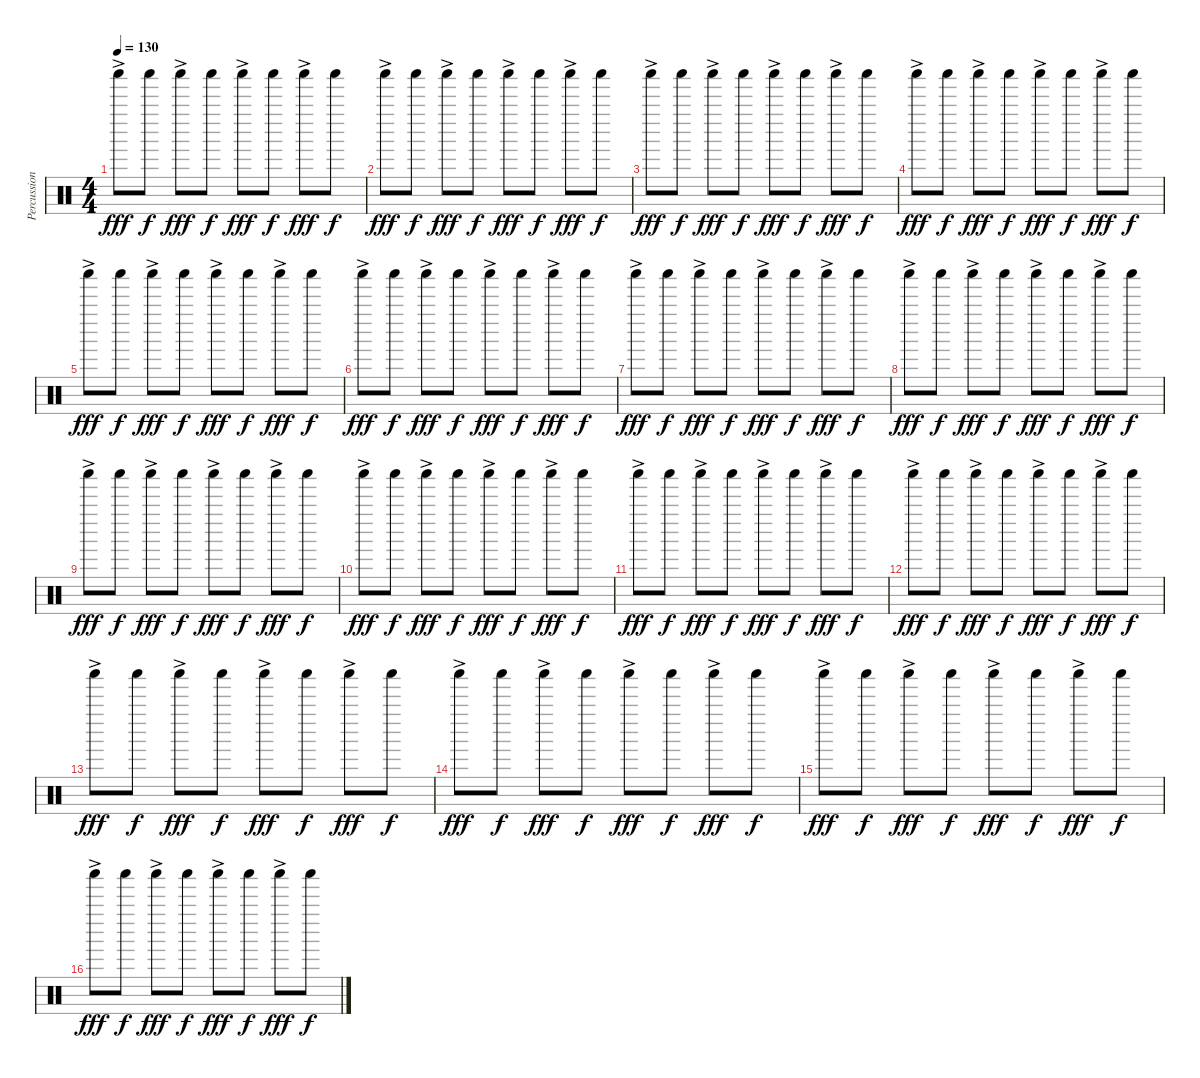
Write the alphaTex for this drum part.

\track ("Percussion" "Percussion") {instrument percussion}
\staff {score}
\articulation defaults
\ts (4 4)
\tempo 130
\clef neutral
\ks c "Shaker (hit)"{ac}.8{dy fff} "Shaker (hit)".8{dy f} "Shaker (hit)"{ac}.8{dy fff} "Shaker (hit)".8{dy f} "Shaker (hit)"{ac}.8{dy fff} "Shaker (hit)".8{dy f} "Shaker (hit)"{ac}.8{dy fff} "Shaker (hit)".8{dy f}
|
"Shaker (hit)"{ac}.8{dy fff} "Shaker (hit)".8{dy f} "Shaker (hit)"{ac}.8{dy fff} "Shaker (hit)".8{dy f} "Shaker (hit)"{ac}.8{dy fff} "Shaker (hit)".8{dy f} "Shaker (hit)"{ac}.8{dy fff} "Shaker (hit)".8{dy f} |
"Shaker (hit)"{ac}.8{dy fff} "Shaker (hit)".8{dy f} "Shaker (hit)"{ac}.8{dy fff} "Shaker (hit)".8{dy f} "Shaker (hit)"{ac}.8{dy fff} "Shaker (hit)".8{dy f} "Shaker (hit)"{ac}.8{dy fff} "Shaker (hit)".8{dy f} |
"Shaker (hit)"{ac}.8{dy fff} "Shaker (hit)".8{dy f} "Shaker (hit)"{ac}.8{dy fff} "Shaker (hit)".8{dy f} "Shaker (hit)"{ac}.8{dy fff} "Shaker (hit)".8{dy f} "Shaker (hit)"{ac}.8{dy fff} "Shaker (hit)".8{dy f} |
"Shaker (hit)"{ac}.8{dy fff} "Shaker (hit)".8{dy f} "Shaker (hit)"{ac}.8{dy fff} "Shaker (hit)".8{dy f} "Shaker (hit)"{ac}.8{dy fff} "Shaker (hit)".8{dy f} "Shaker (hit)"{ac}.8{dy fff} "Shaker (hit)".8{dy f} |
"Shaker (hit)"{ac}.8{dy fff} "Shaker (hit)".8{dy f} "Shaker (hit)"{ac}.8{dy fff} "Shaker (hit)".8{dy f} "Shaker (hit)"{ac}.8{dy fff} "Shaker (hit)".8{dy f} "Shaker (hit)"{ac}.8{dy fff} "Shaker (hit)".8{dy f} |
"Shaker (hit)"{ac}.8{dy fff} "Shaker (hit)".8{dy f} "Shaker (hit)"{ac}.8{dy fff} "Shaker (hit)".8{dy f} "Shaker (hit)"{ac}.8{dy fff} "Shaker (hit)".8{dy f} "Shaker (hit)"{ac}.8{dy fff} "Shaker (hit)".8{dy f} |
"Shaker (hit)"{ac}.8{dy fff} "Shaker (hit)".8{dy f} "Shaker (hit)"{ac}.8{dy fff} "Shaker (hit)".8{dy f} "Shaker (hit)"{ac}.8{dy fff} "Shaker (hit)".8{dy f} "Shaker (hit)"{ac}.8{dy fff} "Shaker (hit)".8{dy f} |
"Shaker (hit)"{ac}.8{dy fff} "Shaker (hit)".8{dy f} "Shaker (hit)"{ac}.8{dy fff} "Shaker (hit)".8{dy f} "Shaker (hit)"{ac}.8{dy fff} "Shaker (hit)".8{dy f} "Shaker (hit)"{ac}.8{dy fff} "Shaker (hit)".8{dy f} |
"Shaker (hit)"{ac}.8{dy fff} "Shaker (hit)".8{dy f} "Shaker (hit)"{ac}.8{dy fff} "Shaker (hit)".8{dy f} "Shaker (hit)"{ac}.8{dy fff} "Shaker (hit)".8{dy f} "Shaker (hit)"{ac}.8{dy fff} "Shaker (hit)".8{dy f} |
"Shaker (hit)"{ac}.8{dy fff} "Shaker (hit)".8{dy f} "Shaker (hit)"{ac}.8{dy fff} "Shaker (hit)".8{dy f} "Shaker (hit)"{ac}.8{dy fff} "Shaker (hit)".8{dy f} "Shaker (hit)"{ac}.8{dy fff} "Shaker (hit)".8{dy f} |
"Shaker (hit)"{ac}.8{dy fff} "Shaker (hit)".8{dy f} "Shaker (hit)"{ac}.8{dy fff} "Shaker (hit)".8{dy f} "Shaker (hit)"{ac}.8{dy fff} "Shaker (hit)".8{dy f} "Shaker (hit)"{ac}.8{dy fff} "Shaker (hit)".8{dy f} |
"Shaker (hit)"{ac}.8{dy fff} "Shaker (hit)".8{dy f} "Shaker (hit)"{ac}.8{dy fff} "Shaker (hit)".8{dy f} "Shaker (hit)"{ac}.8{dy fff} "Shaker (hit)".8{dy f} "Shaker (hit)"{ac}.8{dy fff} "Shaker (hit)".8{dy f} |
"Shaker (hit)"{ac}.8{dy fff} "Shaker (hit)".8{dy f} "Shaker (hit)"{ac}.8{dy fff} "Shaker (hit)".8{dy f} "Shaker (hit)"{ac}.8{dy fff} "Shaker (hit)".8{dy f} "Shaker (hit)"{ac}.8{dy fff} "Shaker (hit)".8{dy f} |
"Shaker (hit)"{ac}.8{dy fff} "Shaker (hit)".8{dy f} "Shaker (hit)"{ac}.8{dy fff} "Shaker (hit)".8{dy f} "Shaker (hit)"{ac}.8{dy fff} "Shaker (hit)".8{dy f} "Shaker (hit)"{ac}.8{dy fff} "Shaker (hit)".8{dy f} |
"Shaker (hit)"{ac}.8{dy fff} "Shaker (hit)".8{dy f} "Shaker (hit)"{ac}.8{dy fff} "Shaker (hit)".8{dy f} "Shaker (hit)"{ac}.8{dy fff} "Shaker (hit)".8{dy f} "Shaker (hit)"{ac}.8{dy fff} "Shaker (hit)".8{dy f}
